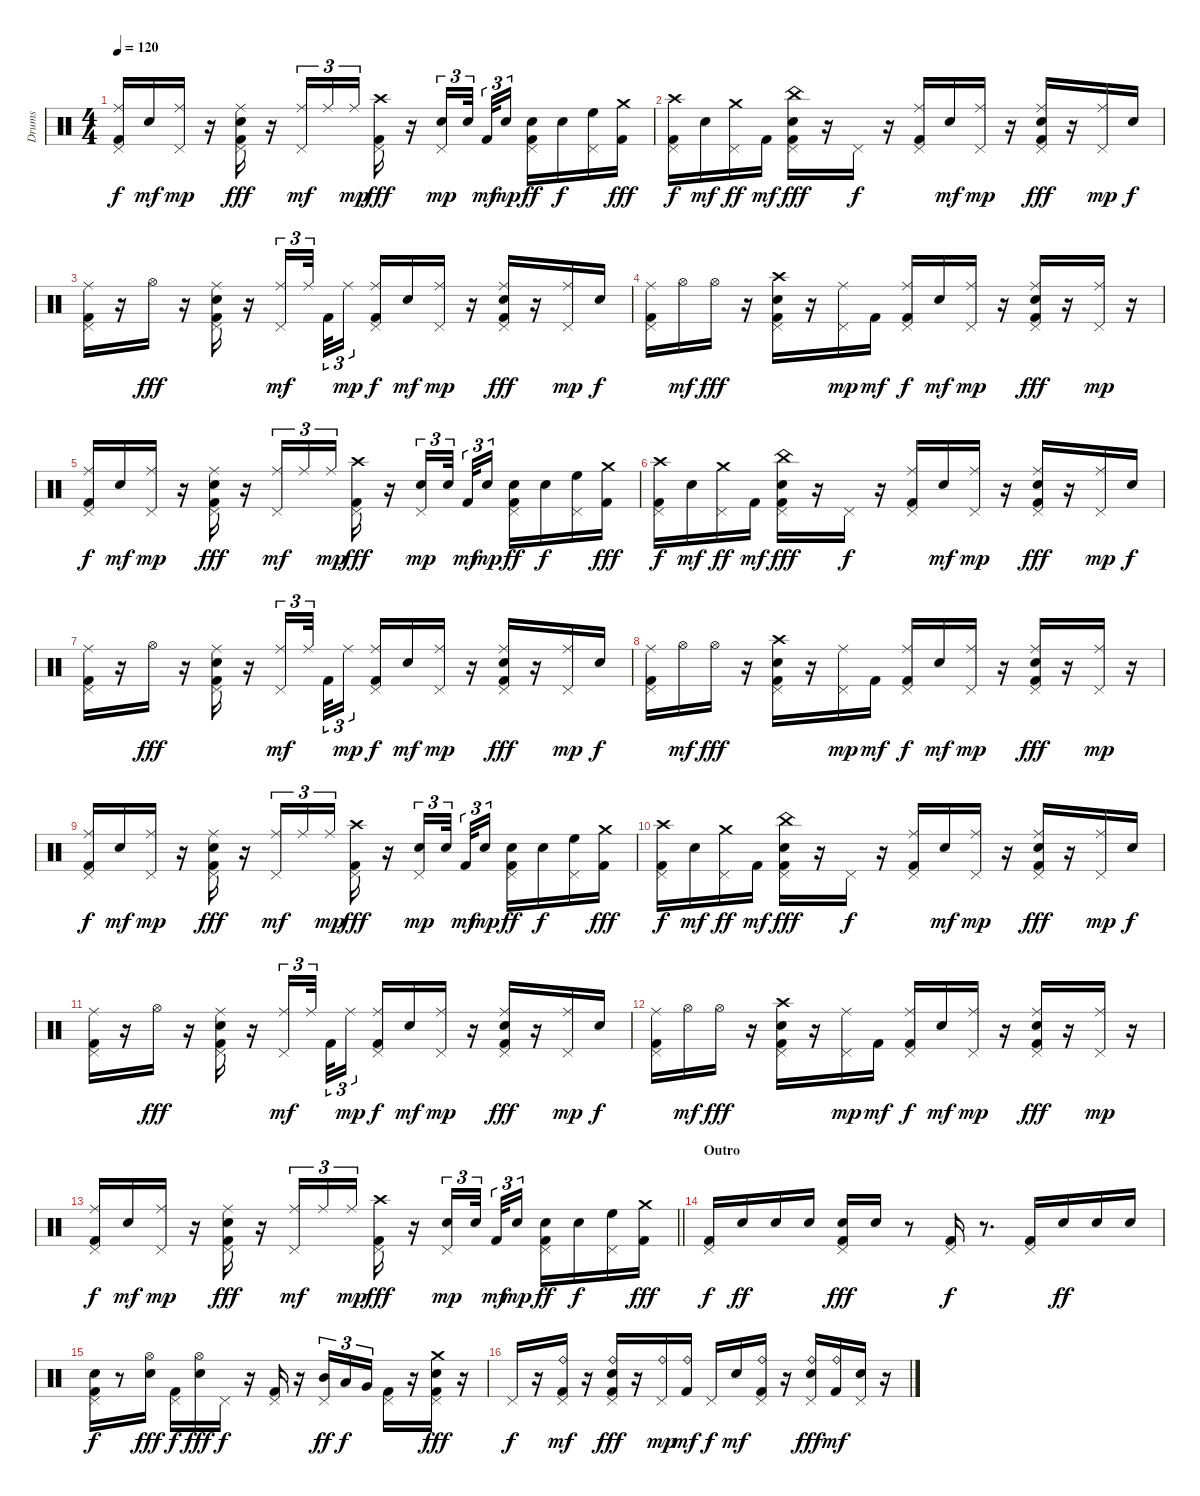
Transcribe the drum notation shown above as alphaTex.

\track ("Drums" "Drums") {instrument percussion}
\staff {score}
\articulation defaults
\ts (4 4)
\tempo 120
\clef neutral
\ks c
("Ride (middle)" "Kick (hit) 2" "Pedal Hi-Hat (hit)").16{dy f} "Snare (hit) 2".16{dy mf} ("Ride (middle)" "Pedal Hi-Hat (hit)").16{dy mp} r.16 ("Snare (hit) 2" "Ride (middle)" "Kick (hit) 2" "Pedal Hi-Hat (hit)").16{dy fff} r.16 ("Pedal Hi-Hat (hit)" "Ride (middle)").16{tu (3 2) dy mf} "Ride (middle)".16{tu (3 2)} "Ride (middle)".16{tu (3 2) dy mp} ("Crash high (hit)" "Kick (hit) 2" "Pedal Hi-Hat (hit)").16{dy fff} r.16 ("Pedal Hi-Hat (hit)" "Snare (hit) 2").16{tu (3 2) dy mp} "Snare (hit) 2".32{tu (3 2) beam splitsecondary} "Kick (hit) 2".32{tu (3 2) dy mf} "Snare (hit) 2".16{tu (3 2) dy mp} ("Snare (hit) 2" "Kick (hit) 2" "Pedal Hi-Hat (hit)").16{dy ff} "Snare (hit) 2".16{dy f} ("High Floor Tom (hit)" "Pedal Hi-Hat (hit)").16 ("Crash medium (hit)" "Kick (hit) 2").16{dy fff} |
("Crash high (hit)" "Kick (hit) 2" "Pedal Hi-Hat (hit)").16{dy f} "Snare (hit) 2".16{dy mf} ("Crash medium (hit)" "Pedal Hi-Hat (hit)").16{dy ff} "Kick (hit) 2".16{dy mf} ("China (hit)" "Snare (hit) 2" "Kick (hit) 2" "Pedal Hi-Hat (hit)").16{dy fff} r.16 "Pedal Hi-Hat (hit)".16{dy f} r.16 ("Ride (middle)" "Kick (hit) 2" "Pedal Hi-Hat (hit)").16 "Snare (hit) 2".16{dy mf} ("Ride (middle)" "Pedal Hi-Hat (hit)").16{dy mp} r.16 ("Snare (hit) 2" "Ride (middle)" "Kick (hit) 2" "Pedal Hi-Hat (hit)").16{dy fff} r.16 ("Ride (middle)" "Pedal Hi-Hat (hit)").16{dy mp} "Snare (hit) 2".16{dy f} |
("Ride (middle)" "Kick (hit) 2" "Pedal Hi-Hat (hit)").16 r.16 "Hi-Hat (open)".16{dy fff} r.16 ("Ride (middle)" "Snare (hit) 2" "Kick (hit) 2" "Pedal Hi-Hat (hit)").16 r.16 ("Pedal Hi-Hat (hit)" "Ride (middle)").16{tu (3 2) dy mf} "Ride (middle)".32{tu (3 2) beam splitsecondary} "Kick (hit) 2".32{tu (3 2)} "Ride (middle)".16{tu (3 2) dy mp} ("Ride (middle)" "Kick (hit) 2" "Pedal Hi-Hat (hit)").16{dy f} "Snare (hit) 2".16{dy mf} ("Ride (middle)" "Pedal Hi-Hat (hit)").16{dy mp} r.16 ("Snare (hit) 2" "Ride (middle)" "Kick (hit) 2" "Pedal Hi-Hat (hit)").16{dy fff} r.16 ("Ride (middle)" "Pedal Hi-Hat (hit)").16{dy mp} "Snare (hit) 2".16{dy f} |
("Ride (middle)" "Kick (hit) 2" "Pedal Hi-Hat (hit)").16 "Hi-Hat (open)".16{dy mf} "Hi-Hat (open)".16{dy fff} r.16 ("Snare (hit) 2" "Crash high (hit)" "Kick (hit) 2" "Pedal Hi-Hat (hit)").16 r.16 ("Ride (middle)" "Pedal Hi-Hat (hit)").16{dy mp} "Kick (hit) 2".16{dy mf} ("Ride (middle)" "Kick (hit) 2" "Pedal Hi-Hat (hit)").16{dy f} "Snare (hit) 2".16{dy mf} ("Ride (middle)" "Pedal Hi-Hat (hit)").16{dy mp} r.16 ("Ride (middle)" "Snare (hit) 2" "Kick (hit) 2" "Pedal Hi-Hat (hit)").16{dy fff} r.16 ("Ride (middle)" "Pedal Hi-Hat (hit)").16{dy mp} r.16 |
("Ride (middle)" "Kick (hit) 2" "Pedal Hi-Hat (hit)").16{dy f} "Snare (hit) 2".16{dy mf} ("Ride (middle)" "Pedal Hi-Hat (hit)").16{dy mp} r.16 ("Snare (hit) 2" "Ride (middle)" "Kick (hit) 2" "Pedal Hi-Hat (hit)").16{dy fff} r.16 ("Pedal Hi-Hat (hit)" "Ride (middle)").16{tu (3 2) dy mf} "Ride (middle)".16{tu (3 2)} "Ride (middle)".16{tu (3 2) dy mp} ("Crash high (hit)" "Kick (hit) 2" "Pedal Hi-Hat (hit)").16{dy fff} r.16 ("Pedal Hi-Hat (hit)" "Snare (hit) 2").16{tu (3 2) dy mp} "Snare (hit) 2".32{tu (3 2) beam splitsecondary} "Kick (hit) 2".32{tu (3 2) dy mf} "Snare (hit) 2".16{tu (3 2) dy mp} ("Snare (hit) 2" "Kick (hit) 2" "Pedal Hi-Hat (hit)").16{dy ff} "Snare (hit) 2".16{dy f} ("High Floor Tom (hit)" "Pedal Hi-Hat (hit)").16 ("Crash medium (hit)" "Kick (hit) 2").16{dy fff} |
("Crash high (hit)" "Kick (hit) 2" "Pedal Hi-Hat (hit)").16{dy f} "Snare (hit) 2".16{dy mf} ("Crash medium (hit)" "Pedal Hi-Hat (hit)").16{dy ff} "Kick (hit) 2".16{dy mf} ("China (hit)" "Snare (hit) 2" "Kick (hit) 2" "Pedal Hi-Hat (hit)").16{dy fff} r.16 "Pedal Hi-Hat (hit)".16{dy f} r.16 ("Ride (middle)" "Kick (hit) 2" "Pedal Hi-Hat (hit)").16 "Snare (hit) 2".16{dy mf} ("Ride (middle)" "Pedal Hi-Hat (hit)").16{dy mp} r.16 ("Snare (hit) 2" "Ride (middle)" "Kick (hit) 2" "Pedal Hi-Hat (hit)").16{dy fff} r.16 ("Ride (middle)" "Pedal Hi-Hat (hit)").16{dy mp} "Snare (hit) 2".16{dy f} |
("Ride (middle)" "Kick (hit) 2" "Pedal Hi-Hat (hit)").16 r.16 "Hi-Hat (open)".16{dy fff} r.16 ("Ride (middle)" "Snare (hit) 2" "Kick (hit) 2" "Pedal Hi-Hat (hit)").16 r.16 ("Pedal Hi-Hat (hit)" "Ride (middle)").16{tu (3 2) dy mf} "Ride (middle)".32{tu (3 2) beam splitsecondary} "Kick (hit) 2".32{tu (3 2)} "Ride (middle)".16{tu (3 2) dy mp} ("Ride (middle)" "Kick (hit) 2" "Pedal Hi-Hat (hit)").16{dy f} "Snare (hit) 2".16{dy mf} ("Ride (middle)" "Pedal Hi-Hat (hit)").16{dy mp} r.16 ("Snare (hit) 2" "Ride (middle)" "Kick (hit) 2" "Pedal Hi-Hat (hit)").16{dy fff} r.16 ("Ride (middle)" "Pedal Hi-Hat (hit)").16{dy mp} "Snare (hit) 2".16{dy f} |
("Ride (middle)" "Kick (hit) 2" "Pedal Hi-Hat (hit)").16 "Hi-Hat (open)".16{dy mf} "Hi-Hat (open)".16{dy fff} r.16 ("Snare (hit) 2" "Crash high (hit)" "Kick (hit) 2" "Pedal Hi-Hat (hit)").16 r.16 ("Ride (middle)" "Pedal Hi-Hat (hit)").16{dy mp} "Kick (hit) 2".16{dy mf} ("Ride (middle)" "Kick (hit) 2" "Pedal Hi-Hat (hit)").16{dy f} "Snare (hit) 2".16{dy mf} ("Ride (middle)" "Pedal Hi-Hat (hit)").16{dy mp} r.16 ("Ride (middle)" "Snare (hit) 2" "Kick (hit) 2" "Pedal Hi-Hat (hit)").16{dy fff} r.16 ("Ride (middle)" "Pedal Hi-Hat (hit)").16{dy mp} r.16 |
("Ride (middle)" "Kick (hit) 2" "Pedal Hi-Hat (hit)").16{dy f} "Snare (hit) 2".16{dy mf} ("Ride (middle)" "Pedal Hi-Hat (hit)").16{dy mp} r.16 ("Snare (hit) 2" "Ride (middle)" "Kick (hit) 2" "Pedal Hi-Hat (hit)").16{dy fff} r.16 ("Pedal Hi-Hat (hit)" "Ride (middle)").16{tu (3 2) dy mf} "Ride (middle)".16{tu (3 2)} "Ride (middle)".16{tu (3 2) dy mp} ("Crash high (hit)" "Kick (hit) 2" "Pedal Hi-Hat (hit)").16{dy fff} r.16 ("Pedal Hi-Hat (hit)" "Snare (hit) 2").16{tu (3 2) dy mp} "Snare (hit) 2".32{tu (3 2) beam splitsecondary} "Kick (hit) 2".32{tu (3 2) dy mf} "Snare (hit) 2".16{tu (3 2) dy mp} ("Snare (hit) 2" "Kick (hit) 2" "Pedal Hi-Hat (hit)").16{dy ff} "Snare (hit) 2".16{dy f} ("High Floor Tom (hit)" "Pedal Hi-Hat (hit)").16 ("Crash medium (hit)" "Kick (hit) 2").16{dy fff} |
("Crash high (hit)" "Kick (hit) 2" "Pedal Hi-Hat (hit)").16{dy f} "Snare (hit) 2".16{dy mf} ("Crash medium (hit)" "Pedal Hi-Hat (hit)").16{dy ff} "Kick (hit) 2".16{dy mf} ("China (hit)" "Snare (hit) 2" "Kick (hit) 2" "Pedal Hi-Hat (hit)").16{dy fff} r.16 "Pedal Hi-Hat (hit)".16{dy f} r.16 ("Ride (middle)" "Kick (hit) 2" "Pedal Hi-Hat (hit)").16 "Snare (hit) 2".16{dy mf} ("Ride (middle)" "Pedal Hi-Hat (hit)").16{dy mp} r.16 ("Snare (hit) 2" "Ride (middle)" "Kick (hit) 2" "Pedal Hi-Hat (hit)").16{dy fff} r.16 ("Ride (middle)" "Pedal Hi-Hat (hit)").16{dy mp} "Snare (hit) 2".16{dy f} |
("Ride (middle)" "Kick (hit) 2" "Pedal Hi-Hat (hit)").16 r.16 "Hi-Hat (open)".16{dy fff} r.16 ("Ride (middle)" "Snare (hit) 2" "Kick (hit) 2" "Pedal Hi-Hat (hit)").16 r.16 ("Pedal Hi-Hat (hit)" "Ride (middle)").16{tu (3 2) dy mf} "Ride (middle)".32{tu (3 2) beam splitsecondary} "Kick (hit) 2".32{tu (3 2)} "Ride (middle)".16{tu (3 2) dy mp} ("Ride (middle)" "Kick (hit) 2" "Pedal Hi-Hat (hit)").16{dy f} "Snare (hit) 2".16{dy mf} ("Ride (middle)" "Pedal Hi-Hat (hit)").16{dy mp} r.16 ("Snare (hit) 2" "Ride (middle)" "Kick (hit) 2" "Pedal Hi-Hat (hit)").16{dy fff} r.16 ("Ride (middle)" "Pedal Hi-Hat (hit)").16{dy mp} "Snare (hit) 2".16{dy f} |
("Ride (middle)" "Kick (hit) 2" "Pedal Hi-Hat (hit)").16 "Hi-Hat (open)".16{dy mf} "Hi-Hat (open)".16{dy fff} r.16 ("Snare (hit) 2" "Crash high (hit)" "Kick (hit) 2" "Pedal Hi-Hat (hit)").16 r.16 ("Ride (middle)" "Pedal Hi-Hat (hit)").16{dy mp} "Kick (hit) 2".16{dy mf} ("Ride (middle)" "Kick (hit) 2" "Pedal Hi-Hat (hit)").16{dy f} "Snare (hit) 2".16{dy mf} ("Ride (middle)" "Pedal Hi-Hat (hit)").16{dy mp} r.16 ("Ride (middle)" "Snare (hit) 2" "Kick (hit) 2" "Pedal Hi-Hat (hit)").16{dy fff} r.16 ("Ride (middle)" "Pedal Hi-Hat (hit)").16{dy mp} r.16 |
\barLineRight lightlight
("Ride (middle)" "Kick (hit) 2" "Pedal Hi-Hat (hit)").16{dy f} "Snare (hit) 2".16{dy mf} ("Ride (middle)" "Pedal Hi-Hat (hit)").16{dy mp} r.16 ("Snare (hit) 2" "Ride (middle)" "Kick (hit) 2" "Pedal Hi-Hat (hit)").16{dy fff} r.16 ("Pedal Hi-Hat (hit)" "Ride (middle)").16{tu (3 2) dy mf} "Ride (middle)".16{tu (3 2)} "Ride (middle)".16{tu (3 2) dy mp} ("Crash high (hit)" "Kick (hit) 2" "Pedal Hi-Hat (hit)").16{dy fff} r.16 ("Pedal Hi-Hat (hit)" "Snare (hit) 2").16{tu (3 2) dy mp} "Snare (hit) 2".32{tu (3 2) beam splitsecondary} "Kick (hit) 2".32{tu (3 2) dy mf} "Snare (hit) 2".16{tu (3 2) dy mp} ("Snare (hit) 2" "Kick (hit) 2" "Pedal Hi-Hat (hit)").16{dy ff} "Snare (hit) 2".16{dy f} ("High Floor Tom (hit)" "Pedal Hi-Hat (hit)").16 ("Crash medium (hit)" "Kick (hit) 2").16{dy fff} |
\section ("" "Outro")
("Kick (hit) 2" "Pedal Hi-Hat (hit)").16{dy f} "Snare (hit) 2".16{dy ff} "Snare (hit) 2".16 "Snare (hit) 2".16 ("Snare (hit) 2" "Kick (hit) 2" "Pedal Hi-Hat (hit)").16{dy fff} "Snare (hit) 2".16 r.8 ("Kick (hit) 2" "Pedal Hi-Hat (hit)").16{dy f} r.8{d} ("Kick (hit) 2" "Pedal Hi-Hat (hit)").16 "Snare (hit) 2".16{dy ff} "Snare (hit) 2".16 "Snare (hit) 2".16 |
("Kick (hit) 2" "Snare (hit) 2" "Pedal Hi-Hat (hit)").16{dy f} r.8 ("Snare (hit) 2" "Hi-Hat (open)").16{dy fff} ("Kick (hit) 2" "Pedal Hi-Hat (hit)").16{dy f} ("Snare (hit) 2" "Hi-Hat (open)").16{dy fff} "Pedal Hi-Hat (hit)".16{dy f} r.16 ("Kick (hit) 2" "Pedal Hi-Hat (hit)").16 r.16 ("Mid Tom (hit)" "Pedal Hi-Hat (hit)").16{tu (3 2) dy ff} "Low Tom (hit)".16{tu (3 2) dy f} "Very Low Tom (hit)".16{tu (3 2)} ("Kick (hit) 2" "Pedal Hi-Hat (hit)").16 r.16 ("Kick (hit) 2" "Snare (hit) 2" "Crash medium (hit)" "Pedal Hi-Hat (hit)").16{dy fff} r.16 |
"Pedal Hi-Hat (hit)".16{dy f} r.16 ("Ride (bell)" "Kick (hit) 2" "Pedal Hi-Hat (hit)").16{dy mf} r.16 ("Ride (bell)" "Snare (hit) 2" "Kick (hit) 2" "Pedal Hi-Hat (hit)").16{dy fff} r.16 ("Ride (bell)" "Pedal Hi-Hat (hit)").16{dy mp} ("Ride (bell)" "Kick (hit) 2").16{dy mf} "Pedal Hi-Hat (hit)".16{dy f} "Snare (hit) 2".16{dy mf} ("Ride (bell)" "Kick (hit) 2" "Pedal Hi-Hat (hit)").16 r.16 ("Ride (bell)" "Snare (hit) 2" "Pedal Hi-Hat (hit)").16{dy fff} ("Ride (bell)" "Kick (hit) 2").16{dy mf} ("Snare (hit) 2" "Pedal Hi-Hat (hit)").16 r.16
